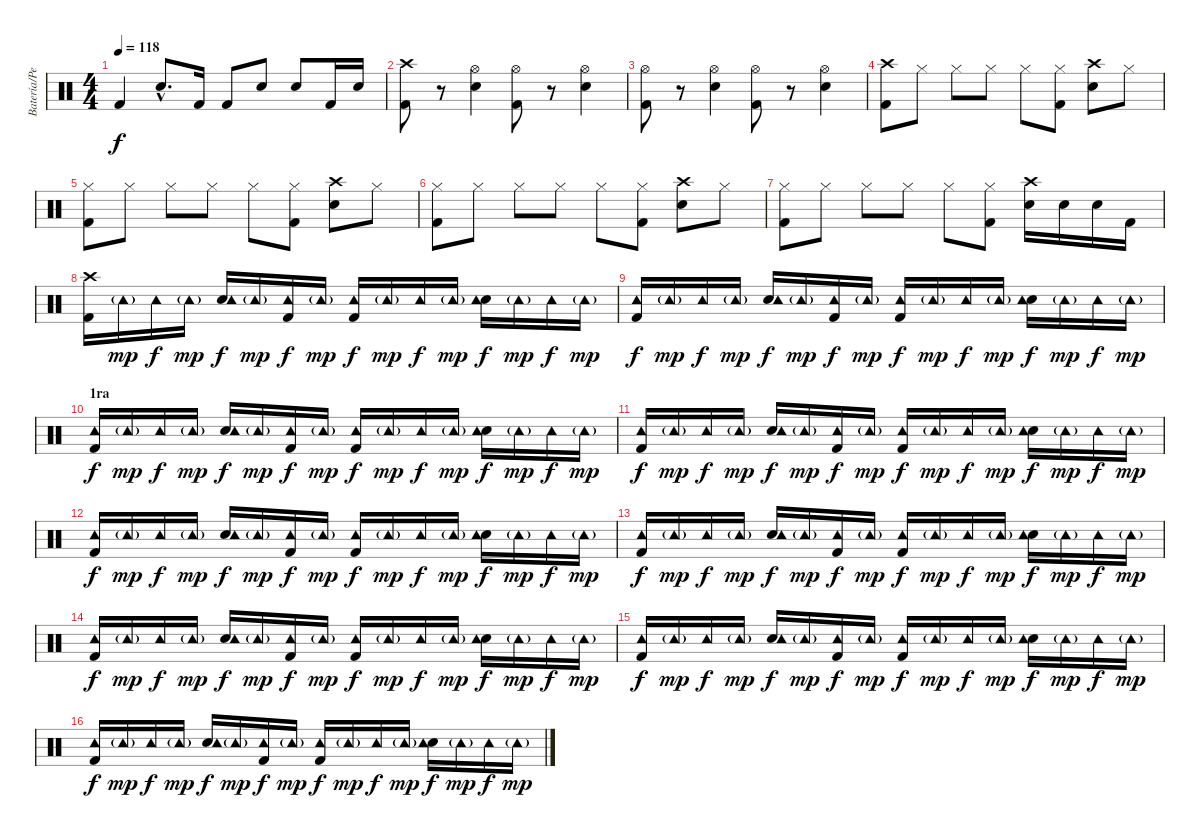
\track ("Batería/Percusión" "Batería/Pe") {instrument percussion}
\staff {score}
\articulation defaults
\ts (4 4)
\tempo 118
\clef neutral
\ks c "Kick (hit) 2".4{dy f} "Electric Snare (hit)"{hac}.8{d} "Kick (hit) 2".16 "Kick (hit) 2".8 "Electric Snare (hit)".8 "Electric Snare (hit)".8 "Kick (hit) 2".16 "Electric Snare (hit)".16
|
("Crash high (hit)" "Kick (hit) 2").8 r.8 ("Hi-Hat (open)" "Electric Snare (hit)").4 ("Hi-Hat (open)" "Kick (hit) 2").8 r.8 ("Hi-Hat (open)" "Electric Snare (hit)").4 |
("Hi-Hat (open)" "Kick (hit) 2").8 r.8 ("Hi-Hat (open)" "Electric Snare (hit)").4 ("Hi-Hat (open)" "Kick (hit) 2").8 r.8 ("Hi-Hat (open)" "Electric Snare (hit)").4 |
("Crash high (hit)" "Kick (hit) 2").8 "Hi-Hat (closed)".8 "Hi-Hat (closed)".8 "Hi-Hat (closed)".8 "Hi-Hat (closed)".8 ("Hi-Hat (closed)" "Kick (hit) 2").8 ("Crash high (hit)" "Electric Snare (hit)").8 "Hi-Hat (closed)".8 |
("Hi-Hat (closed)" "Kick (hit) 2").8 "Hi-Hat (closed)".8 "Hi-Hat (closed)".8 "Hi-Hat (closed)".8 "Hi-Hat (closed)".8 ("Hi-Hat (closed)" "Kick (hit) 2").8 ("Crash high (hit)" "Electric Snare (hit)").8 "Hi-Hat (closed)".8 |
("Hi-Hat (closed)" "Kick (hit) 2").8 "Hi-Hat (closed)".8 "Hi-Hat (closed)".8 "Hi-Hat (closed)".8 "Hi-Hat (closed)".8 ("Hi-Hat (closed)" "Kick (hit) 2").8 ("Crash high (hit)" "Electric Snare (hit)").8 "Hi-Hat (closed)".8 |
("Hi-Hat (closed)" "Kick (hit) 2").8 "Hi-Hat (closed)".8 "Hi-Hat (closed)".8 "Hi-Hat (closed)".8 "Hi-Hat (closed)".8 ("Hi-Hat (closed)" "Kick (hit) 2").8 ("Crash high (hit)" "Electric Snare (hit)").16 "Electric Snare (hit)".16 "Electric Snare (hit)".16 "Kick (hit) 2".16 |
("Crash high (hit)" "Kick (hit) 2").16 "Tambourine (hit)"{g}.16{dy mp} "Tambourine (hit)".16{dy f} "Tambourine (hit)"{g}.16{dy mp} ("Electric Snare (hit)" "Tambourine (hit)").16{dy f} "Tambourine (hit)"{g}.16{dy mp} ("Kick (hit) 2" "Tambourine (hit)").16{dy f} "Tambourine (hit)"{g}.16{dy mp} ("Kick (hit) 2" "Tambourine (hit)").16{dy f} "Tambourine (hit)"{g}.16{dy mp} "Tambourine (hit)".16{dy f} "Tambourine (hit)"{g}.16{dy mp} ("Electric Snare (hit)" "Tambourine (hit)").16{dy f} "Tambourine (hit)"{g}.16{dy mp} "Tambourine (hit)".16{dy f} "Tambourine (hit)"{g}.16{dy mp} |
("Kick (hit) 2" "Tambourine (hit)").16{dy f} "Tambourine (hit)"{g}.16{dy mp} "Tambourine (hit)".16{dy f} "Tambourine (hit)"{g}.16{dy mp} ("Electric Snare (hit)" "Tambourine (hit)").16{dy f} "Tambourine (hit)"{g}.16{dy mp} ("Kick (hit) 2" "Tambourine (hit)").16{dy f} "Tambourine (hit)"{g}.16{dy mp} ("Kick (hit) 2" "Tambourine (hit)").16{dy f} "Tambourine (hit)"{g}.16{dy mp} "Tambourine (hit)".16{dy f} "Tambourine (hit)"{g}.16{dy mp} ("Electric Snare (hit)" "Tambourine (hit)").16{dy f} "Tambourine (hit)"{g}.16{dy mp} "Tambourine (hit)".16{dy f} "Tambourine (hit)"{g}.16{dy mp} |
\section ("" "1ra")
("Kick (hit) 2" "Tambourine (hit)").16{dy f} "Tambourine (hit)"{g}.16{dy mp} "Tambourine (hit)".16{dy f} "Tambourine (hit)"{g}.16{dy mp} ("Electric Snare (hit)" "Tambourine (hit)").16{dy f} "Tambourine (hit)"{g}.16{dy mp} ("Kick (hit) 2" "Tambourine (hit)").16{dy f} "Tambourine (hit)"{g}.16{dy mp} ("Kick (hit) 2" "Tambourine (hit)").16{dy f} "Tambourine (hit)"{g}.16{dy mp} "Tambourine (hit)".16{dy f} "Tambourine (hit)"{g}.16{dy mp} ("Electric Snare (hit)" "Tambourine (hit)").16{dy f} "Tambourine (hit)"{g}.16{dy mp} "Tambourine (hit)".16{dy f} "Tambourine (hit)"{g}.16{dy mp} |
("Kick (hit) 2" "Tambourine (hit)").16{dy f} "Tambourine (hit)"{g}.16{dy mp} "Tambourine (hit)".16{dy f} "Tambourine (hit)"{g}.16{dy mp} ("Electric Snare (hit)" "Tambourine (hit)").16{dy f} "Tambourine (hit)"{g}.16{dy mp} ("Kick (hit) 2" "Tambourine (hit)").16{dy f} "Tambourine (hit)"{g}.16{dy mp} ("Kick (hit) 2" "Tambourine (hit)").16{dy f} "Tambourine (hit)"{g}.16{dy mp} "Tambourine (hit)".16{dy f} "Tambourine (hit)"{g}.16{dy mp} ("Electric Snare (hit)" "Tambourine (hit)").16{dy f} "Tambourine (hit)"{g}.16{dy mp} "Tambourine (hit)".16{dy f} "Tambourine (hit)"{g}.16{dy mp} |
("Kick (hit) 2" "Tambourine (hit)").16{dy f} "Tambourine (hit)"{g}.16{dy mp} "Tambourine (hit)".16{dy f} "Tambourine (hit)"{g}.16{dy mp} ("Electric Snare (hit)" "Tambourine (hit)").16{dy f} "Tambourine (hit)"{g}.16{dy mp} ("Kick (hit) 2" "Tambourine (hit)").16{dy f} "Tambourine (hit)"{g}.16{dy mp} ("Kick (hit) 2" "Tambourine (hit)").16{dy f} "Tambourine (hit)"{g}.16{dy mp} "Tambourine (hit)".16{dy f} "Tambourine (hit)"{g}.16{dy mp} ("Electric Snare (hit)" "Tambourine (hit)").16{dy f} "Tambourine (hit)"{g}.16{dy mp} "Tambourine (hit)".16{dy f} "Tambourine (hit)"{g}.16{dy mp} |
("Kick (hit) 2" "Tambourine (hit)").16{dy f} "Tambourine (hit)"{g}.16{dy mp} "Tambourine (hit)".16{dy f} "Tambourine (hit)"{g}.16{dy mp} ("Electric Snare (hit)" "Tambourine (hit)").16{dy f} "Tambourine (hit)"{g}.16{dy mp} ("Kick (hit) 2" "Tambourine (hit)").16{dy f} "Tambourine (hit)"{g}.16{dy mp} ("Kick (hit) 2" "Tambourine (hit)").16{dy f} "Tambourine (hit)"{g}.16{dy mp} "Tambourine (hit)".16{dy f} "Tambourine (hit)"{g}.16{dy mp} ("Electric Snare (hit)" "Tambourine (hit)").16{dy f} "Tambourine (hit)"{g}.16{dy mp} "Tambourine (hit)".16{dy f} "Tambourine (hit)"{g}.16{dy mp} |
("Kick (hit) 2" "Tambourine (hit)").16{dy f} "Tambourine (hit)"{g}.16{dy mp} "Tambourine (hit)".16{dy f} "Tambourine (hit)"{g}.16{dy mp} ("Electric Snare (hit)" "Tambourine (hit)").16{dy f} "Tambourine (hit)"{g}.16{dy mp} ("Kick (hit) 2" "Tambourine (hit)").16{dy f} "Tambourine (hit)"{g}.16{dy mp} ("Kick (hit) 2" "Tambourine (hit)").16{dy f} "Tambourine (hit)"{g}.16{dy mp} "Tambourine (hit)".16{dy f} "Tambourine (hit)"{g}.16{dy mp} ("Electric Snare (hit)" "Tambourine (hit)").16{dy f} "Tambourine (hit)"{g}.16{dy mp} "Tambourine (hit)".16{dy f} "Tambourine (hit)"{g}.16{dy mp} |
("Kick (hit) 2" "Tambourine (hit)").16{dy f} "Tambourine (hit)"{g}.16{dy mp} "Tambourine (hit)".16{dy f} "Tambourine (hit)"{g}.16{dy mp} ("Electric Snare (hit)" "Tambourine (hit)").16{dy f} "Tambourine (hit)"{g}.16{dy mp} ("Kick (hit) 2" "Tambourine (hit)").16{dy f} "Tambourine (hit)"{g}.16{dy mp} ("Kick (hit) 2" "Tambourine (hit)").16{dy f} "Tambourine (hit)"{g}.16{dy mp} "Tambourine (hit)".16{dy f} "Tambourine (hit)"{g}.16{dy mp} ("Electric Snare (hit)" "Tambourine (hit)").16{dy f} "Tambourine (hit)"{g}.16{dy mp} "Tambourine (hit)".16{dy f} "Tambourine (hit)"{g}.16{dy mp} |
("Kick (hit) 2" "Tambourine (hit)").16{dy f} "Tambourine (hit)"{g}.16{dy mp} "Tambourine (hit)".16{dy f} "Tambourine (hit)"{g}.16{dy mp} ("Electric Snare (hit)" "Tambourine (hit)").16{dy f} "Tambourine (hit)"{g}.16{dy mp} ("Kick (hit) 2" "Tambourine (hit)").16{dy f} "Tambourine (hit)"{g}.16{dy mp} ("Kick (hit) 2" "Tambourine (hit)").16{dy f} "Tambourine (hit)"{g}.16{dy mp} "Tambourine (hit)".16{dy f} "Tambourine (hit)"{g}.16{dy mp} ("Electric Snare (hit)" "Tambourine (hit)").16{dy f} "Tambourine (hit)"{g}.16{dy mp} "Tambourine (hit)".16{dy f} "Tambourine (hit)"{g}.16{dy mp}
